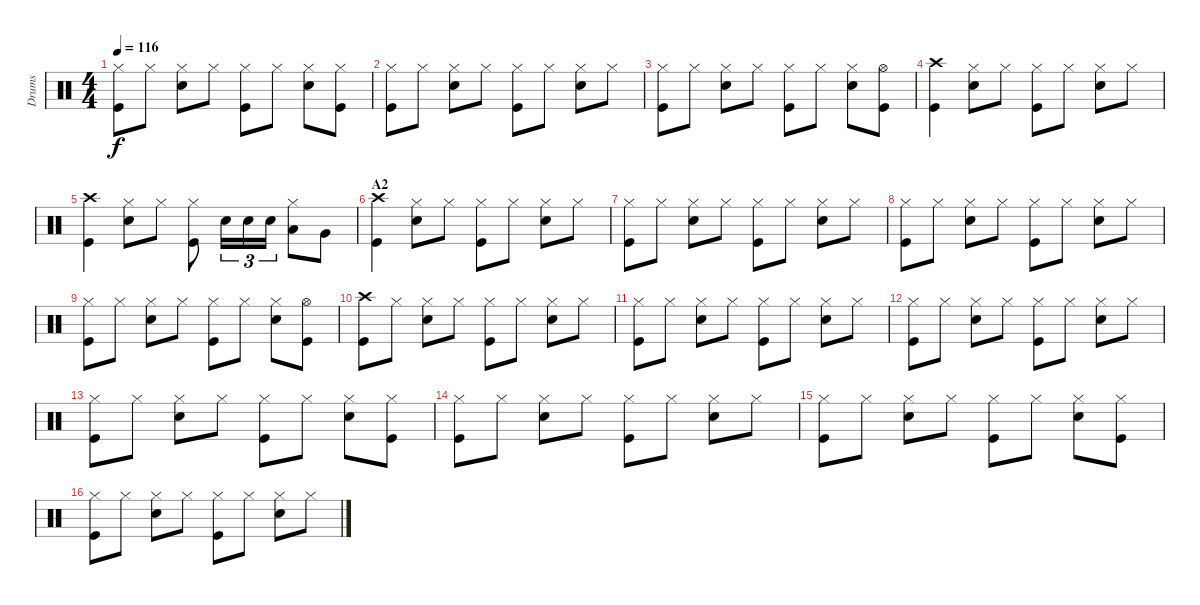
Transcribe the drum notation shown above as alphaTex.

\track ("Drums" "Drums") {instrument percussion}
\staff {score}
\articulation defaults
\ts (4 4)
\tempo 116
\clef neutral
\ks c
("Hi-Hat (closed)" "Kick (hit)").8{dy f} "Hi-Hat (closed)".8 ("Hi-Hat (closed)" "Snare (hit) 2").8 "Hi-Hat (closed)".8 ("Hi-Hat (closed)" "Kick (hit)").8 "Hi-Hat (closed)".8 ("Hi-Hat (closed)" "Snare (hit) 2").8 ("Hi-Hat (closed)" "Kick (hit)").8 |
("Hi-Hat (closed)" "Kick (hit)").8 "Hi-Hat (closed)".8 ("Hi-Hat (closed)" "Snare (hit) 2").8 "Hi-Hat (closed)".8 ("Hi-Hat (closed)" "Kick (hit)").8 "Hi-Hat (closed)".8 ("Hi-Hat (closed)" "Snare (hit) 2").8 "Hi-Hat (closed)".8 |
("Hi-Hat (closed)" "Kick (hit)").8 "Hi-Hat (closed)".8 ("Hi-Hat (closed)" "Snare (hit) 2").8 "Hi-Hat (closed)".8 ("Hi-Hat (closed)" "Kick (hit)").8 "Hi-Hat (closed)".8 ("Hi-Hat (closed)" "Snare (hit) 2").8 ("Hi-Hat (open)" "Kick (hit)").8 |
("Crash high (hit)" "Kick (hit)").4 ("Hi-Hat (closed)" "Snare (hit) 2").8 "Hi-Hat (closed)".8 ("Hi-Hat (closed)" "Kick (hit)").8 "Hi-Hat (closed)".8 ("Hi-Hat (closed)" "Snare (hit) 2").8 "Hi-Hat (closed)".8 |
("Crash high (hit)" "Kick (hit)").4 ("Hi-Hat (closed)" "Snare (hit) 2").8 "Hi-Hat (closed)".8 ("Hi-Hat (closed)" "Kick (hit)").8 "Electric Snare (hit)".16{tu (3 2)} "Electric Snare (hit)".16{tu (3 2)} "Electric Snare (hit)".16{tu (3 2)} ("Hi-Hat (closed)" "Low Tom (hit)").8 "Very Low Tom (hit)".8 |
\section ("" "A2")
("Crash high (hit)" "Kick (hit)").4 ("Hi-Hat (closed)" "Snare (hit) 2").8 "Hi-Hat (closed)".8 ("Hi-Hat (closed)" "Kick (hit)").8 "Hi-Hat (closed)".8 ("Hi-Hat (closed)" "Snare (hit) 2").8 "Hi-Hat (closed)".8 |
("Hi-Hat (closed)" "Kick (hit)").8 "Hi-Hat (closed)".8 ("Hi-Hat (closed)" "Snare (hit) 2").8 "Hi-Hat (closed)".8 ("Hi-Hat (closed)" "Kick (hit)").8 "Hi-Hat (closed)".8 ("Hi-Hat (closed)" "Snare (hit) 2").8 "Hi-Hat (closed)".8 |
("Hi-Hat (closed)" "Kick (hit)").8 "Hi-Hat (closed)".8 ("Hi-Hat (closed)" "Snare (hit) 2").8 "Hi-Hat (closed)".8 ("Hi-Hat (closed)" "Kick (hit)").8 "Hi-Hat (closed)".8 ("Hi-Hat (closed)" "Snare (hit) 2").8 "Hi-Hat (closed)".8 |
("Hi-Hat (closed)" "Kick (hit)").8 "Hi-Hat (closed)".8 ("Hi-Hat (closed)" "Snare (hit) 2").8 "Hi-Hat (closed)".8 ("Hi-Hat (closed)" "Kick (hit)").8 "Hi-Hat (closed)".8 ("Hi-Hat (closed)" "Snare (hit) 2").8 ("Hi-Hat (open)" "Kick (hit)").8 |
("Crash high (hit)" "Kick (hit)").8 "Hi-Hat (closed)".8 ("Hi-Hat (closed)" "Snare (hit) 2").8 "Hi-Hat (closed)".8 ("Hi-Hat (closed)" "Kick (hit)").8 "Hi-Hat (closed)".8 ("Hi-Hat (closed)" "Snare (hit) 2").8 "Hi-Hat (closed)".8 |
("Hi-Hat (closed)" "Kick (hit)").8 "Hi-Hat (closed)".8 ("Hi-Hat (closed)" "Snare (hit) 2").8 "Hi-Hat (closed)".8 ("Hi-Hat (closed)" "Kick (hit)").8 "Hi-Hat (closed)".8 ("Hi-Hat (closed)" "Snare (hit) 2").8 "Hi-Hat (closed)".8 |
("Hi-Hat (closed)" "Kick (hit)").8 "Hi-Hat (closed)".8 ("Hi-Hat (closed)" "Snare (hit) 2").8 "Hi-Hat (closed)".8 ("Hi-Hat (closed)" "Kick (hit)").8 "Hi-Hat (closed)".8 ("Hi-Hat (closed)" "Snare (hit) 2").8 "Hi-Hat (closed)".8 |
("Hi-Hat (closed)" "Kick (hit)").8 "Hi-Hat (closed)".8 ("Hi-Hat (closed)" "Snare (hit) 2").8 "Hi-Hat (closed)".8 ("Hi-Hat (closed)" "Kick (hit)").8 "Hi-Hat (closed)".8 ("Hi-Hat (closed)" "Snare (hit) 2").8 ("Hi-Hat (closed)" "Kick (hit)").8 |
("Hi-Hat (closed)" "Kick (hit)").8 "Hi-Hat (closed)".8 ("Hi-Hat (closed)" "Snare (hit) 2").8 "Hi-Hat (closed)".8 ("Hi-Hat (closed)" "Kick (hit)").8 "Hi-Hat (closed)".8 ("Hi-Hat (closed)" "Snare (hit) 2").8 "Hi-Hat (closed)".8 |
("Hi-Hat (closed)" "Kick (hit)").8 "Hi-Hat (closed)".8 ("Hi-Hat (closed)" "Snare (hit) 2").8 "Hi-Hat (closed)".8 ("Hi-Hat (closed)" "Kick (hit)").8 "Hi-Hat (closed)".8 ("Hi-Hat (closed)" "Snare (hit) 2").8 ("Hi-Hat (closed)" "Kick (hit)").8 |
("Hi-Hat (closed)" "Kick (hit)").8 "Hi-Hat (closed)".8 ("Hi-Hat (closed)" "Snare (hit) 2").8 "Hi-Hat (closed)".8 ("Hi-Hat (closed)" "Kick (hit)").8 "Hi-Hat (closed)".8 ("Hi-Hat (closed)" "Snare (hit) 2").8 "Hi-Hat (closed)".8
